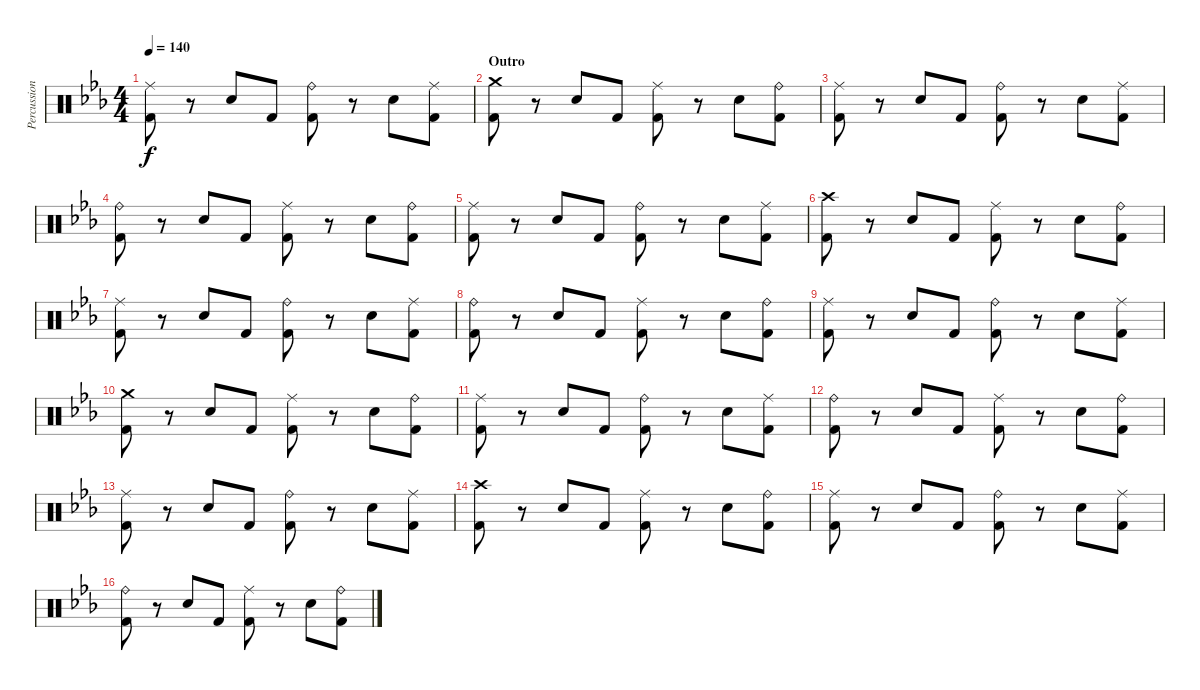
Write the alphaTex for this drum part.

\track ("Percussions" "Percussion") {instrument percussion}
\staff {score}
\articulation defaults
\ts (4 4)
\tempo 140
\clef neutral
\ks eb
("Ride (middle)" "Kick (hit) 2").8{dy f} r.8 "Snare (hit) 2".8 "Kick (hit) 2".8 ("Ride (bell)" "Kick (hit) 2").8 r.8 "Snare (hit) 2".8 ("Ride (middle)" "Kick (hit) 2").8 |
\section ("" "Outro")
("Crash medium (hit)" "Kick (hit) 2").8{volume 12} r.8 "Snare (hit) 2".8 "Kick (hit) 2".8 ("Ride (middle)" "Kick (hit) 2").8 r.8 "Snare (hit) 2".8 ("Ride (bell)" "Kick (hit) 2").8 |
("Ride (middle)" "Kick (hit) 2").8 r.8 "Snare (hit) 2".8 "Kick (hit) 2".8 ("Ride (bell)" "Kick (hit) 2").8 r.8 "Snare (hit) 2".8 ("Ride (middle)" "Kick (hit) 2").8 |
("Ride (bell)" "Kick (hit) 2").8 r.8 "Snare (hit) 2".8 "Kick (hit) 2".8 ("Ride (middle)" "Kick (hit) 2").8 r.8 "Snare (hit) 2".8 ("Ride (bell)" "Kick (hit) 2").8 |
("Ride (middle)" "Kick (hit) 2").8 r.8 "Snare (hit) 2".8 "Kick (hit) 2".8 ("Ride (bell)" "Kick (hit) 2").8 r.8 "Snare (hit) 2".8 ("Ride (middle)" "Kick (hit) 2").8 |
("Crash high (hit)" "Kick (hit) 2").8{volume 8} r.8 "Snare (hit) 2".8 "Kick (hit) 2".8 ("Ride (middle)" "Kick (hit) 2").8 r.8 "Snare (hit) 2".8 ("Ride (bell)" "Kick (hit) 2").8 |
("Ride (middle)" "Kick (hit) 2").8 r.8 "Snare (hit) 2".8 "Kick (hit) 2".8 ("Ride (bell)" "Kick (hit) 2").8 r.8 "Snare (hit) 2".8 ("Ride (middle)" "Kick (hit) 2").8 |
("Ride (bell)" "Kick (hit) 2").8 r.8 "Snare (hit) 2".8 "Kick (hit) 2".8 ("Ride (middle)" "Kick (hit) 2").8 r.8 "Snare (hit) 2".8 ("Ride (bell)" "Kick (hit) 2").8 |
("Ride (middle)" "Kick (hit) 2").8 r.8 "Snare (hit) 2".8 "Kick (hit) 2".8 ("Ride (bell)" "Kick (hit) 2").8 r.8 "Snare (hit) 2".8 ("Ride (middle)" "Kick (hit) 2").8 |
("Crash medium (hit)" "Kick (hit) 2").8{volume 4} r.8 "Snare (hit) 2".8 "Kick (hit) 2".8 ("Ride (middle)" "Kick (hit) 2").8 r.8 "Snare (hit) 2".8 ("Ride (bell)" "Kick (hit) 2").8 |
("Ride (middle)" "Kick (hit) 2").8 r.8 "Snare (hit) 2".8 "Kick (hit) 2".8 ("Ride (bell)" "Kick (hit) 2").8 r.8 "Snare (hit) 2".8 ("Ride (middle)" "Kick (hit) 2").8 |
("Ride (bell)" "Kick (hit) 2").8 r.8 "Snare (hit) 2".8 "Kick (hit) 2".8 ("Ride (middle)" "Kick (hit) 2").8 r.8 "Snare (hit) 2".8 ("Ride (bell)" "Kick (hit) 2").8 |
("Ride (middle)" "Kick (hit) 2").8 r.8 "Snare (hit) 2".8 "Kick (hit) 2".8 ("Ride (bell)" "Kick (hit) 2").8 r.8 "Snare (hit) 2".8 ("Ride (middle)" "Kick (hit) 2").8 |
("Crash high (hit)" "Kick (hit) 2").8{volume 0} r.8 "Snare (hit) 2".8 "Kick (hit) 2".8 ("Ride (middle)" "Kick (hit) 2").8 r.8 "Snare (hit) 2".8 ("Ride (bell)" "Kick (hit) 2").8 |
("Ride (middle)" "Kick (hit) 2").8 r.8 "Snare (hit) 2".8 "Kick (hit) 2".8 ("Ride (bell)" "Kick (hit) 2").8 r.8 "Snare (hit) 2".8 ("Ride (middle)" "Kick (hit) 2").8 |
("Ride (bell)" "Kick (hit) 2").8 r.8 "Snare (hit) 2".8 "Kick (hit) 2".8 ("Ride (middle)" "Kick (hit) 2").8 r.8 "Snare (hit) 2".8 ("Ride (bell)" "Kick (hit) 2").8
